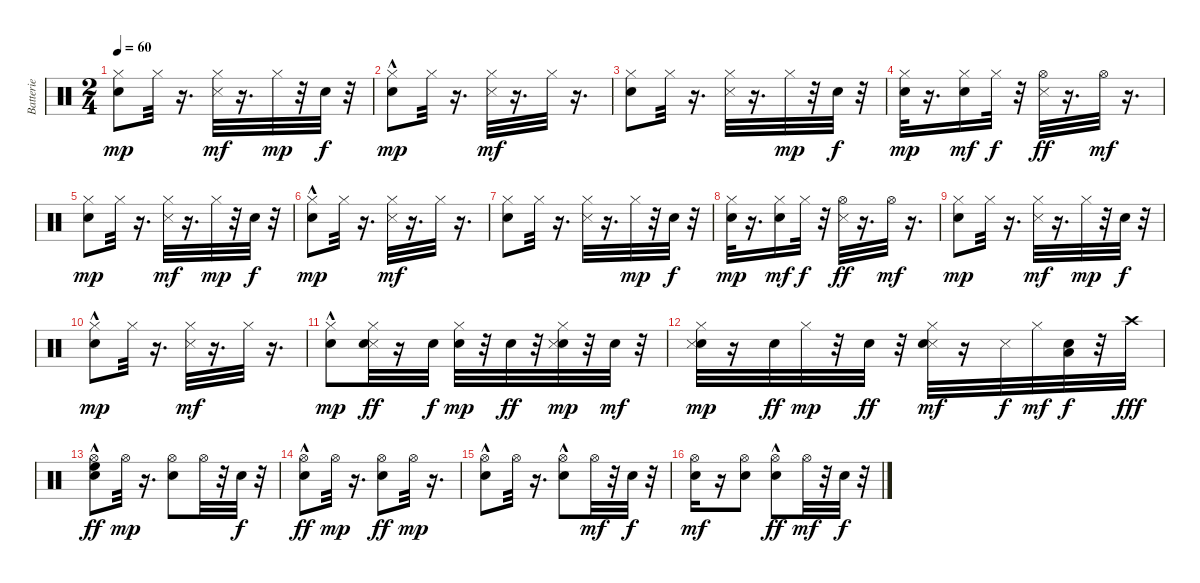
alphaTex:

\track ("Batterie" "Batterie") {instrument percussion}
\staff {score}
\articulation defaults
\ts (2 4)
\tempo 60
\clef neutral
\ks c
("Snare (hit)" "Hi-Hat (closed)").8{dy mp} "Hi-Hat (closed)".32 r.16{d} ("Hi-Hat (closed)" "Snare (side stick) 3").32{dy mf} r.16{d} "Hi-Hat (closed)".32{dy mp} r.32 "Snare (hit)".32{dy f} r.32 |
("Snare (hit)"{hac} "Hi-Hat (closed)").8{dy mp} "Hi-Hat (closed)".32 r.16{d} ("Snare (side stick) 3" "Hi-Hat (closed)").32{dy mf} r.16{d} "Hi-Hat (closed)".32 r.16{d} |
("Snare (hit)" "Hi-Hat (closed)").8 "Hi-Hat (closed)".32 r.16{d} ("Snare (side stick) 3" "Hi-Hat (closed)").32 r.16{d} "Hi-Hat (closed)".32{dy mp} r.32 "Snare (hit)".32{dy f} r.32 |
("Snare (hit)" "Hi-Hat (closed)").32{dy mp} r.16{d} ("Snare (hit)" "Hi-Hat (closed)").16{dy mf} "Hi-Hat (closed)".32{dy f} r.32 ("Snare (side stick) 3" "Hi-Hat (open)").32{dy ff} r.16{d} "Hi-Hat (open)".32{dy mf} r.16{d} |
("Snare (hit)" "Hi-Hat (closed)").8{dy mp} "Hi-Hat (closed)".32 r.16{d} ("Hi-Hat (closed)" "Snare (side stick) 3").32{dy mf} r.16{d} "Hi-Hat (closed)".32{dy mp} r.32 "Snare (hit)".32{dy f} r.32 |
("Snare (hit)"{hac} "Hi-Hat (closed)").8{dy mp} "Hi-Hat (closed)".32 r.16{d} ("Snare (side stick) 3" "Hi-Hat (closed)").32{dy mf} r.16{d} "Hi-Hat (closed)".32 r.16{d} |
("Snare (hit)" "Hi-Hat (closed)").8 "Hi-Hat (closed)".32 r.16{d} ("Snare (side stick) 3" "Hi-Hat (closed)").32 r.16{d} "Hi-Hat (closed)".32{dy mp} r.32 "Snare (hit)".32{dy f} r.32 |
("Snare (hit)" "Hi-Hat (closed)").32{dy mp} r.16{d} ("Snare (hit)" "Hi-Hat (closed)").16{dy mf} "Hi-Hat (closed)".32{dy f} r.32 ("Snare (side stick) 3" "Hi-Hat (open)").32{dy ff} r.16{d} "Hi-Hat (open)".32{dy mf} r.16{d} |
("Snare (hit)" "Hi-Hat (closed)").8{dy mp} "Hi-Hat (closed)".32 r.16{d} ("Hi-Hat (closed)" "Snare (side stick) 3").32{dy mf} r.16{d} "Hi-Hat (closed)".32{dy mp} r.32 "Snare (hit)".32{dy f} r.32 |
("Snare (hit)"{hac} "Hi-Hat (closed)").8{dy mp} "Hi-Hat (closed)".32 r.16{d} ("Snare (side stick) 3" "Hi-Hat (closed)").32{dy mf} r.16{d} "Hi-Hat (closed)".32 r.16{d} |
("Snare (hit)"{hac} "Hi-Hat (closed)").8{dy mp} ("Hi-Hat (closed)" "Metronome (hit)" "Electric Snare (hit)").32{dy ff} r.16 "Electric Snare (hit)".32{dy f} ("Electric Snare (hit)" "Hi-Hat (closed)").32{dy mp} r.32 "Electric Snare (hit)".32{dy ff} r.32 ("Electric Snare (hit)" "Metronome (hit)" "Hi-Hat (closed)").32{dy mp} r.32 "Electric Snare (hit)".32{dy mf} r.32 |
("Electric Snare (hit)" "Metronome (hit)" "Hi-Hat (closed)").32{dy mp} r.16 "Electric Snare (hit)".32{dy ff} "Hi-Hat (closed)".32{dy mp} r.32 "Electric Snare (hit)".32{dy ff} r.32 ("Metronome (hit)" "Electric Snare (hit)" "Hi-Hat (closed)").32{dy mf} r.16 "Metronome (hit)".32{dy f} "Hi-Hat (closed)".32{dy mf} ("Low Floor Tom (hit)" "Electric Snare (hit)").32{dy f} r.32 "Crash high (hit)".32{dy fff} |
("High Floor Tom (hit)" "Hi-Hat (open)" "Snare (hit)"{hac}).8{dy ff} "Hi-Hat (open)".32{dy mp} r.16{d} ("Hi-Hat (open)" "Electric Snare (hit)").8 "Hi-Hat (open)".32 r.32 "Snare (hit)".32{dy f} r.32 |
("Hi-Hat (open)" "Snare (hit)"{hac}).8{dy ff} "Hi-Hat (open)".32{dy mp} r.16{d} ("Hi-Hat (open)" "Electric Snare (hit)").8{dy ff} "Hi-Hat (open)".32{dy mp} r.16{d} |
("Snare (hit)"{hac} "Hi-Hat (open)").8 "Hi-Hat (open)".32 r.16{d} ("Electric Snare (hit)"{hac} "Hi-Hat (open)").8 "Hi-Hat (open)".32{dy mf} r.32 "Snare (hit)".32{dy f} r.32 |
("Snare (hit)" "Hi-Hat (open)").16{dy mf} r.16 ("Snare (hit)" "Hi-Hat (open)").8 ("Hi-Hat (open)" "Electric Snare (hit)"{hac}).8{dy ff} "Hi-Hat (open)".32{dy mf} r.32 "Snare (hit)".32{dy f} r.32
